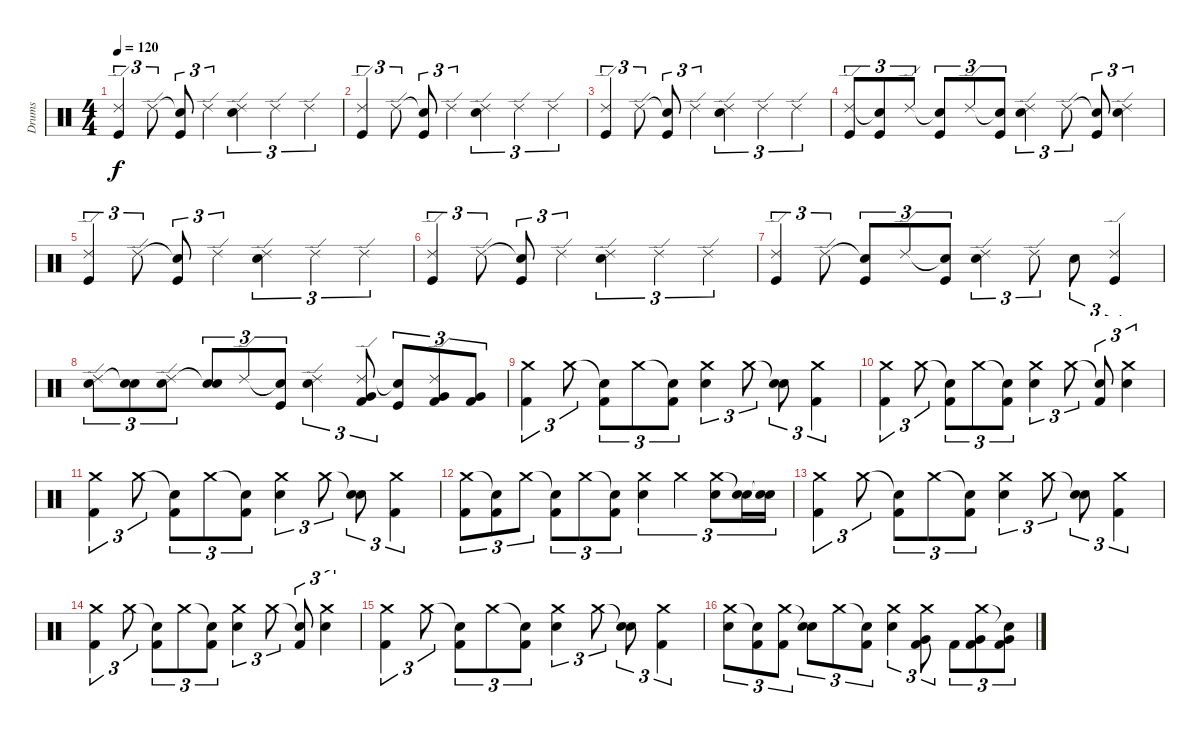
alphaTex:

\track ("Drums" "Drums") {instrument percussion}
\staff {score}
\articulation defaults
\ts (4 4)
\tempo 120
\clef neutral
\ks c
("Ride (edge) 2" "Kick (hit)").4{tu (3 2) dy f} "Ride (edge) 2".8{tu (3 2)} ("Snare (hit)"{t} "Kick (hit)").8{tu (3 2)} "Ride (edge) 2".4{tu (3 2)} ("Ride (edge) 2" "Electric Snare (hit)").4{tu (3 2)} "Ride (edge) 2".4{tu (3 2)} "Ride (edge) 2".4{tu (3 2)} |
("Ride (edge) 2" "Kick (hit)").4{tu (3 2)} "Ride (edge) 2".8{tu (3 2)} ("Snare (hit)"{t} "Kick (hit)").8{tu (3 2)} "Ride (edge) 2".4{tu (3 2)} ("Ride (edge) 2" "Electric Snare (hit)").4{tu (3 2)} "Ride (edge) 2".4{tu (3 2)} "Ride (edge) 2".4{tu (3 2)} |
("Ride (edge) 2" "Kick (hit)").4{tu (3 2)} "Ride (edge) 2".8{tu (3 2)} ("Snare (hit)"{t} "Kick (hit)").8{tu (3 2)} "Ride (edge) 2".4{tu (3 2)} ("Ride (edge) 2" "Electric Snare (hit)").4{tu (3 2)} "Ride (edge) 2".4{tu (3 2)} "Ride (edge) 2".4{tu (3 2)} |
("Ride (edge) 2" "Kick (hit)").8{tu (3 2)} ("Snare (hit)"{t} "Kick (hit)").8{tu (3 2)} "Ride (edge) 2".8{tu (3 2)} ("Snare (hit)"{t} "Kick (hit)").8{tu (3 2)} "Ride (edge) 2".8{tu (3 2)} ("Snare (hit)"{t} "Kick (hit)").8{tu (3 2)} ("Ride (edge) 2" "Electric Snare (hit)").4{tu (3 2)} "Ride (edge) 2".8{tu (3 2)} ("Snare (hit)"{t} "Kick (hit)").8{tu (3 2)} ("Ride (edge) 2" "Electric Snare (hit)").4{tu (3 2)} |
("Ride (edge) 2" "Kick (hit)").4{tu (3 2)} "Ride (edge) 2".8{tu (3 2)} ("Snare (hit)"{t} "Kick (hit)").8{tu (3 2)} "Ride (edge) 2".4{tu (3 2)} ("Ride (edge) 2" "Electric Snare (hit)").4{tu (3 2)} "Ride (edge) 2".4{tu (3 2)} "Ride (edge) 2".4{tu (3 2)} |
("Ride (edge) 2" "Kick (hit)").4{tu (3 2)} "Ride (edge) 2".8{tu (3 2)} ("Snare (hit)"{t} "Kick (hit)").8{tu (3 2)} "Ride (edge) 2".4{tu (3 2)} ("Ride (edge) 2" "Electric Snare (hit)").4{tu (3 2)} "Ride (edge) 2".4{tu (3 2)} "Ride (edge) 2".4{tu (3 2)} |
("Ride (edge) 2" "Kick (hit)").4{tu (3 2)} "Ride (edge) 2".8{tu (3 2)} ("Snare (hit)"{t} "Kick (hit)").8{tu (3 2)} "Ride (edge) 2".8{tu (3 2)} ("Snare (hit)"{t} "Kick (hit)").8{tu (3 2)} ("Ride (edge) 2" "Electric Snare (hit)").4{tu (3 2)} "Ride (edge) 2".8{tu (3 2)} "Electric Snare (hit)".8{tu (3 2)} ("Ride (edge) 2" "Kick (hit)").4{tu (3 2)} |
("Ride (edge) 2" "Electric Snare (hit)").8{tu (3 2)} ("Snare (hit)"{t} "Electric Snare (hit)").8{tu (3 2)} ("Ride (edge) 2" "Electric Snare (hit)").8{tu (3 2)} ("Snare (hit)"{t} "Electric Snare (hit)").8{tu (3 2)} "Ride (edge) 2".8{tu (3 2)} ("Snare (hit)"{t} "Kick (hit)").8{tu (3 2)} ("Ride (edge) 2" "Electric Snare (hit)").4{tu (3 2)} ("Ride (edge) 2" "Very Low Tom (hit)" "Kick (hit) 2").8{tu (3 2)} ("Snare (hit)"{t} "Kick (hit)").8{tu (3 2)} ("Ride (edge) 2" "Very Low Tom (hit)" "Kick (hit) 2").8{tu (3 2)} ("Very Low Tom (hit)" "Kick (hit) 2").8{tu (3 2)} |
("Crash medium (hit)" "Kick (hit) 2").4{tu (3 2)} "Crash medium (hit)".8{tu (3 2)} ("Snare (hit)"{t} "Kick (hit) 2").8{tu (3 2)} "Crash medium (hit)".8{tu (3 2)} ("Snare (hit)"{t} "Kick (hit) 2").8{tu (3 2)} ("Crash medium (hit)" "Electric Snare (hit)").4{tu (3 2)} "Crash medium (hit)".8{tu (3 2)} ("Snare (hit)"{t} "Electric Snare (hit)").8{tu (3 2)} ("Crash medium (hit)" "Kick (hit) 2").4{tu (3 2)} |
("Crash medium (hit)" "Kick (hit) 2").4{tu (3 2)} "Crash medium (hit)".8{tu (3 2)} ("Snare (hit)"{t} "Kick (hit) 2").8{tu (3 2)} "Crash medium (hit)".8{tu (3 2)} ("Snare (hit)"{t} "Kick (hit) 2").8{tu (3 2)} ("Crash medium (hit)" "Electric Snare (hit)").4{tu (3 2)} "Crash medium (hit)".8{tu (3 2)} ("Snare (hit)"{t} "Kick (hit) 2").8{tu (3 2)} ("Crash medium (hit)" "Electric Snare (hit)").4{tu (3 2)} |
("Crash medium (hit)" "Kick (hit) 2").4{tu (3 2)} "Crash medium (hit)".8{tu (3 2)} ("Snare (hit)"{t} "Kick (hit) 2").8{tu (3 2)} "Crash medium (hit)".8{tu (3 2)} ("Snare (hit)"{t} "Kick (hit) 2").8{tu (3 2)} ("Crash medium (hit)" "Electric Snare (hit)").4{tu (3 2)} "Crash medium (hit)".8{tu (3 2)} ("Snare (hit)"{t} "Electric Snare (hit)").8{tu (3 2)} ("Crash medium (hit)" "Kick (hit) 2").4{tu (3 2)} |
("Crash medium (hit)" "Kick (hit) 2").8{tu (3 2)} ("Snare (hit)"{t} "Kick (hit) 2").8{tu (3 2)} "Crash medium (hit)".8{tu (3 2)} ("Snare (hit)"{t} "Kick (hit) 2").8{tu (3 2)} "Crash medium (hit)".8{tu (3 2)} ("Snare (hit)"{t} "Kick (hit) 2").8{tu (3 2)} ("Crash medium (hit)" "Electric Snare (hit)").4{tu (3 2)} "Crash medium (hit)".4{tu (3 2)} ("Crash medium (hit)" "Electric Snare (hit)").8{tu (3 2)} ("Snare (hit)"{t} "Electric Snare (hit)").16{tu (3 2)} ("Snare (hit)"{t} "Electric Snare (hit)").16{tu (3 2)} |
("Crash medium (hit)" "Kick (hit) 2").4{tu (3 2)} "Crash medium (hit)".8{tu (3 2)} ("Snare (hit)"{t} "Kick (hit) 2").8{tu (3 2)} "Crash medium (hit)".8{tu (3 2)} ("Snare (hit)"{t} "Kick (hit) 2").8{tu (3 2)} ("Crash medium (hit)" "Electric Snare (hit)").4{tu (3 2)} "Crash medium (hit)".8{tu (3 2)} ("Snare (hit)"{t} "Electric Snare (hit)").8{tu (3 2)} ("Crash medium (hit)" "Kick (hit) 2").4{tu (3 2)} |
("Crash medium (hit)" "Kick (hit) 2").4{tu (3 2)} "Crash medium (hit)".8{tu (3 2)} ("Snare (hit)"{t} "Kick (hit) 2").8{tu (3 2)} "Crash medium (hit)".8{tu (3 2)} ("Snare (hit)"{t} "Kick (hit) 2").8{tu (3 2)} ("Crash medium (hit)" "Electric Snare (hit)").4{tu (3 2)} "Crash medium (hit)".8{tu (3 2)} ("Snare (hit)"{t} "Kick (hit) 2").8{tu (3 2)} ("Crash medium (hit)" "Electric Snare (hit)").4{tu (3 2)} |
("Crash medium (hit)" "Kick (hit) 2").4{tu (3 2)} "Crash medium (hit)".8{tu (3 2)} ("Snare (hit)"{t} "Kick (hit) 2").8{tu (3 2)} "Crash medium (hit)".8{tu (3 2)} ("Snare (hit)"{t} "Kick (hit) 2").8{tu (3 2)} ("Crash medium (hit)" "Electric Snare (hit)").4{tu (3 2)} "Crash medium (hit)".8{tu (3 2)} ("Snare (hit)"{t} "Electric Snare (hit)").8{tu (3 2)} ("Crash medium (hit)" "Kick (hit) 2").4{tu (3 2)} |
("Crash medium (hit)" "Electric Snare (hit)").8{tu (3 2)} ("Snare (hit)"{t} "Kick (hit) 2").8{tu (3 2)} ("Crash medium (hit)" "Kick (hit) 2").8{tu (3 2)} ("Snare (hit)"{t} "Electric Snare (hit)").8{tu (3 2)} "Crash medium (hit)".8{tu (3 2)} ("Snare (hit)"{t} "Kick (hit) 2").8{tu (3 2)} ("Crash medium (hit)" "Electric Snare (hit)").4{tu (3 2)} ("Crash medium (hit)" "Very Low Tom (hit)" "Kick (hit) 2").8{tu (3 2)} "Kick (hit) 2".8{tu (3 2)} ("Crash medium (hit)" "Very Low Tom (hit)" "Kick (hit) 2").8{tu (3 2)} ("Snare (hit)"{t} "Very Low Tom (hit)" "Kick (hit) 2").8{tu (3 2)}
